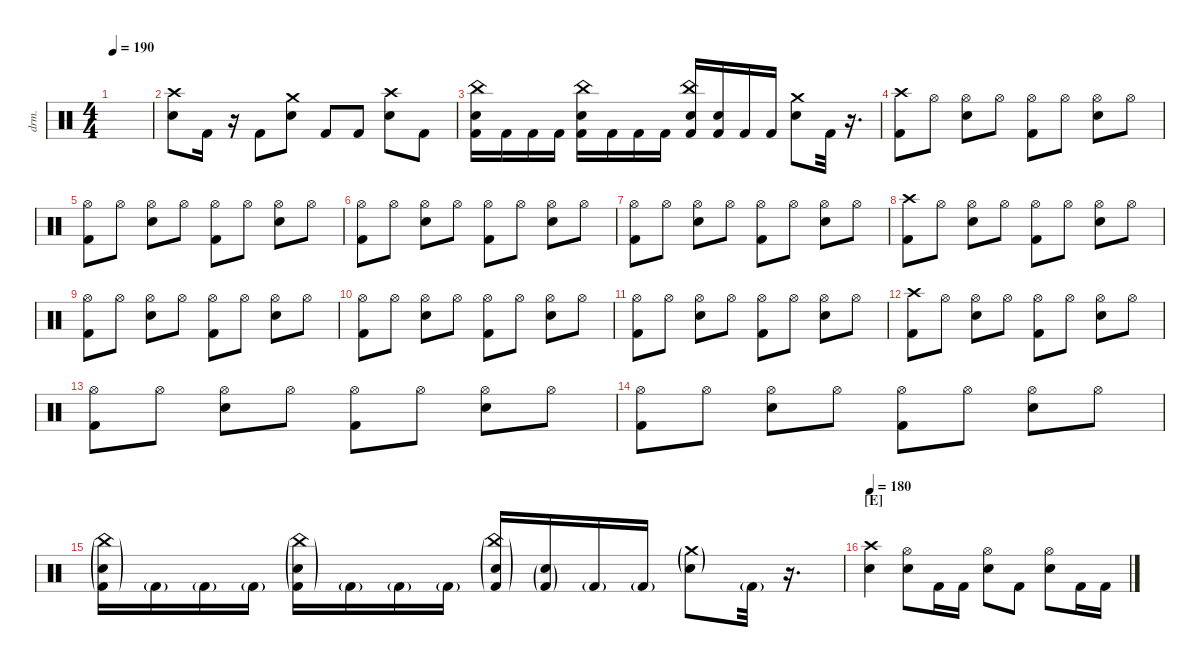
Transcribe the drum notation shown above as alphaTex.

\defaultSystemsLayout 4
\hideDynamics
\bracketExtendMode nobrackets
\otherSystemsTrackNameOrientation horizontal
\track ("Drumkit" "drm.") {instrument percussion}
\staff {score}
\articulation defaults
\ts (4 4)
\tempo 190
\clef neutral
\ks c
|
("Snare (hit) 2" "Crash high (hit)"{acc #}).8{beam Down} "Kick (hit) 2".16{beam Down} r.16{beam Down} "Kick (hit) 2".8{beam Down} ("Snare (hit) 2" "Crash medium (hit)").8{beam Down} "Kick (hit) 2".8{beam Up} "Kick (hit) 2".8{beam Up} ("Snare (hit) 2" "Crash high (hit)"{acc #}).8{beam Down} "Kick (hit) 2".8{beam Down} |
("Kick (hit) 2" "Snare (hit) 2" "China (hit)").16{beam Down} "Kick (hit) 2".16{beam Down} "Kick (hit) 2".16{beam Down} "Kick (hit) 2".16{beam Down} ("Kick (hit) 2" "Snare (hit) 2" "China (hit)").16{beam Down} "Kick (hit) 2".16{beam Down} "Kick (hit) 2".16{beam Down} "Kick (hit) 2".16{beam Down} ("Kick (hit) 2" "Snare (hit) 2" "China (hit)").16{beam Up} ("Kick (hit) 2" "Snare (hit) 2").16{beam Up} "Kick (hit) 2".16{beam Up} "Kick (hit) 2".16{beam Up} ("Snare (hit) 2" "Crash medium (hit)").8{beam Down} "Kick (hit) 2".32{beam Down} r.16{d beam Down} |
("Crash high (hit)" "Kick (hit) 2").8{beam Down} "Hi-Hat (open)".8{beam Down} ("Hi-Hat (open)" "Snare (hit) 2").8{beam Down} "Hi-Hat (open)".8{beam Down} ("Hi-Hat (open)" "Kick (hit) 2").8{beam Down} "Hi-Hat (open)".8{beam Down} ("Hi-Hat (open)" "Snare (hit) 2").8{beam Down} "Hi-Hat (open)".8{beam Down} |
("Hi-Hat (open)" "Kick (hit) 2").8{beam Down} "Hi-Hat (open)".8{beam Down} ("Hi-Hat (open)" "Snare (hit) 2").8{beam Down} "Hi-Hat (open)".8{beam Down} ("Hi-Hat (open)" "Kick (hit) 2").8{beam Down} "Hi-Hat (open)".8{beam Down} ("Hi-Hat (open)" "Snare (hit) 2").8{beam Down} "Hi-Hat (open)".8{beam Down} |
("Hi-Hat (open)" "Kick (hit) 2").8{beam Down} "Hi-Hat (open)".8{beam Down} ("Hi-Hat (open)" "Snare (hit) 2").8{beam Down} "Hi-Hat (open)".8{beam Down} ("Hi-Hat (open)" "Kick (hit) 2").8{beam Down} "Hi-Hat (open)".8{beam Down} ("Hi-Hat (open)" "Snare (hit) 2").8{beam Down} "Hi-Hat (open)".8{beam Down} |
("Hi-Hat (open)" "Kick (hit) 2").8{beam Down} "Hi-Hat (open)".8{beam Down} ("Hi-Hat (open)" "Snare (hit) 2").8{beam Down} "Hi-Hat (open)".8{beam Down} ("Hi-Hat (open)" "Kick (hit) 2").8{beam Down} "Hi-Hat (open)".8{beam Down} ("Hi-Hat (open)" "Snare (hit) 2").8{beam Down} "Hi-Hat (open)".8{beam Down} |
("Crash high (hit)" "Kick (hit) 2").8{beam Down} "Hi-Hat (open)".8{beam Down} ("Hi-Hat (open)" "Snare (hit) 2").8{beam Down} "Hi-Hat (open)".8{beam Down} ("Hi-Hat (open)" "Kick (hit) 2").8{beam Down} "Hi-Hat (open)".8{beam Down} ("Hi-Hat (open)" "Snare (hit) 2").8{beam Down} "Hi-Hat (open)".8{beam Down} |
("Hi-Hat (open)" "Kick (hit) 2").8{beam Down} "Hi-Hat (open)".8{beam Down} ("Hi-Hat (open)" "Snare (hit) 2").8{beam Down} "Hi-Hat (open)".8{beam Down} ("Hi-Hat (open)" "Kick (hit) 2").8{beam Down} "Hi-Hat (open)".8{beam Down} ("Hi-Hat (open)" "Snare (hit) 2").8{beam Down} "Hi-Hat (open)".8{beam Down} |
("Hi-Hat (open)" "Kick (hit) 2").8{beam Down} "Hi-Hat (open)".8{beam Down} ("Hi-Hat (open)" "Snare (hit) 2").8{beam Down} "Hi-Hat (open)".8{beam Down} ("Hi-Hat (open)" "Kick (hit) 2").8{beam Down} "Hi-Hat (open)".8{beam Down} ("Hi-Hat (open)" "Snare (hit) 2").8{beam Down} "Hi-Hat (open)".8{beam Down} |
("Hi-Hat (open)" "Kick (hit) 2").8{beam Down} "Hi-Hat (open)".8{beam Down} ("Hi-Hat (open)" "Snare (hit) 2").8{beam Down} "Hi-Hat (open)".8{beam Down} ("Hi-Hat (open)" "Kick (hit) 2").8{beam Down} "Hi-Hat (open)".8{beam Down} ("Hi-Hat (open)" "Snare (hit) 2").8{beam Down} "Hi-Hat (open)".8{beam Down} |
("Crash high (hit)" "Kick (hit) 2").8{beam Down} "Hi-Hat (open)".8{beam Down} ("Hi-Hat (open)" "Snare (hit) 2").8{beam Down} "Hi-Hat (open)".8{beam Down} ("Hi-Hat (open)" "Kick (hit) 2").8{beam Down} "Hi-Hat (open)".8{beam Down} ("Hi-Hat (open)" "Snare (hit) 2").8{beam Down} "Hi-Hat (open)".8{beam Down} |
("Hi-Hat (open)" "Kick (hit) 2").8{beam Down} "Hi-Hat (open)".8{beam Down} ("Hi-Hat (open)" "Snare (hit) 2").8{beam Down} "Hi-Hat (open)".8{beam Down} ("Hi-Hat (open)" "Kick (hit) 2").8{beam Down} "Hi-Hat (open)".8{beam Down} ("Hi-Hat (open)" "Snare (hit) 2").8{beam Down} "Hi-Hat (open)".8{beam Down} |
("Hi-Hat (open)" "Kick (hit) 2").8{beam Down} "Hi-Hat (open)".8{beam Down} ("Hi-Hat (open)" "Snare (hit) 2").8{beam Down} "Hi-Hat (open)".8{beam Down} ("Hi-Hat (open)" "Kick (hit) 2").8{beam Down} "Hi-Hat (open)".8{beam Down} ("Hi-Hat (open)" "Snare (hit) 2").8{beam Down} "Hi-Hat (open)".8{beam Down} |
("Kick (hit) 2"{g} "Snare (hit) 2"{g} "China (hit)"{g}).16{beam Down} "Kick (hit) 2"{g}.16{beam Down} "Kick (hit) 2"{g}.16{beam Down} "Kick (hit) 2"{g}.16{beam Down} ("Kick (hit) 2"{g} "Snare (hit) 2"{g} "China (hit)"{g}).16{beam Down} "Kick (hit) 2"{g}.16{beam Down} "Kick (hit) 2"{g}.16{beam Down} "Kick (hit) 2"{g}.16{beam Down} ("Kick (hit) 2"{g} "Snare (hit) 2"{g} "China (hit)"{g}).16{beam Up} ("Kick (hit) 2"{g} "Snare (hit) 2"{g}).16{beam Up} "Kick (hit) 2"{g}.16{beam Up} "Kick (hit) 2"{g}.16{beam Up} ("Snare (hit) 2"{g} "Crash medium (hit)"{g}).8{beam Down} "Kick (hit) 2"{g}.32{beam Down} r.16{d beam Down} |
\section ("E" "")
\tempo 180
("Snare (hit) 2" "Crash high (hit)"{acc #}).4{beam Down} ("Snare (hit) 2" "Hi-Hat (open)").8{beam Down} "Kick (hit) 2".16{beam Down} "Kick (hit) 2".16{beam Down} ("Snare (hit) 2" "Hi-Hat (open)").8{beam Down} "Kick (hit) 2".8{beam Down} ("Snare (hit) 2" "Hi-Hat (open)").8{beam Down} "Kick (hit) 2".16{beam Down} "Kick (hit) 2".16{beam Down}
